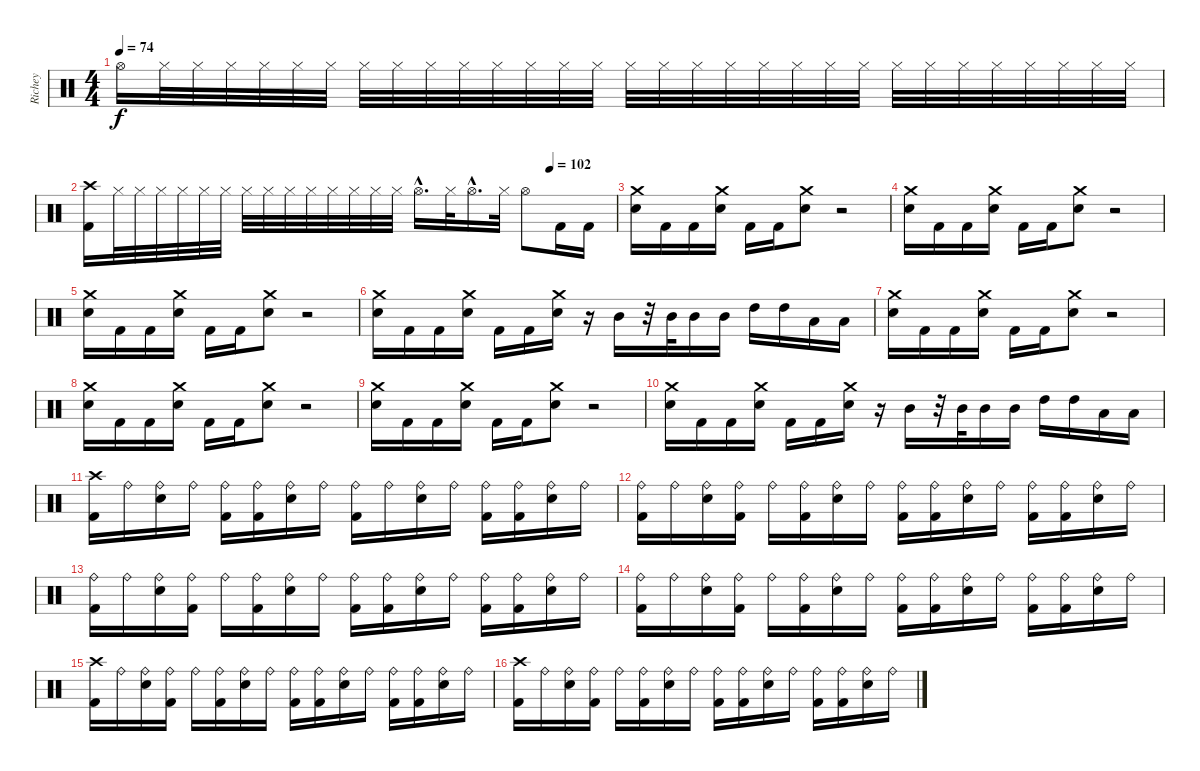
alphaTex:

\track ("Richey" "Richey") {instrument percussion}
\staff {score}
\articulation defaults
\ts (4 4)
\tempo 74
\clef neutral
\ks c "Hi-Hat (open)".16{dy f} "Hi-Hat (closed)".32 "Hi-Hat (closed)".32 "Hi-Hat (closed)".32 "Hi-Hat (closed)".32 "Hi-Hat (closed)".32 "Hi-Hat (closed)".32 "Hi-Hat (closed)".32 "Hi-Hat (closed)".32 "Hi-Hat (closed)".32 "Hi-Hat (closed)".32 "Hi-Hat (closed)".32 "Hi-Hat (closed)".32 "Hi-Hat (closed)".32 "Hi-Hat (closed)".32 "Hi-Hat (closed)".32 "Hi-Hat (closed)".32 "Hi-Hat (closed)".32 "Hi-Hat (closed)".32 "Hi-Hat (closed)".32 "Hi-Hat (closed)".32 "Hi-Hat (closed)".32 "Hi-Hat (closed)".32 "Hi-Hat (closed)".32 "Hi-Hat (closed)".32 "Hi-Hat (closed)".32 "Hi-Hat (closed)".32 "Hi-Hat (closed)".32 "Hi-Hat (closed)".32 "Hi-Hat (closed)".32 "Hi-Hat (closed)".32
|
\tempo (102 0.875)
("Crash high (hit)" "Kick (hit) 2").16 "Hi-Hat (closed)".32 "Hi-Hat (closed)".32 "Hi-Hat (closed)".32 "Hi-Hat (closed)".32 "Hi-Hat (closed)".32 "Hi-Hat (closed)".32 "Hi-Hat (closed)".32 "Hi-Hat (closed)".32 "Hi-Hat (closed)".32 "Hi-Hat (closed)".32 "Hi-Hat (closed)".32 "Hi-Hat (closed)".32 "Hi-Hat (closed)".32 "Hi-Hat (closed)".32 "Hi-Hat (open)"{hac}.16{d} "Hi-Hat (closed)".32 "Hi-Hat (open)"{hac}.16{d} "Hi-Hat (closed)".32 "Hi-Hat (open)".8 "Kick (hit) 2".16 "Kick (hit) 2".16 |
("Crash medium (hit)" "Snare (hit) 2").16 "Kick (hit) 2".16 "Kick (hit) 2".16 ("Crash medium (hit)" "Snare (hit) 2").16 "Kick (hit) 2".16 "Kick (hit) 2".16 ("Crash medium (hit)" "Snare (hit) 2").8 r.2 |
("Crash medium (hit)" "Snare (hit) 2").16 "Kick (hit) 2".16 "Kick (hit) 2".16 ("Crash medium (hit)" "Snare (hit) 2").16 "Kick (hit) 2".16 "Kick (hit) 2".16 ("Crash medium (hit)" "Snare (hit) 2").8 r.2 |
("Crash medium (hit)" "Snare (hit) 2").16 "Kick (hit) 2".16 "Kick (hit) 2".16 ("Crash medium (hit)" "Snare (hit) 2").16 "Kick (hit) 2".16 "Kick (hit) 2".16 ("Crash medium (hit)" "Snare (hit) 2").8 r.2 |
("Crash medium (hit)" "Snare (hit) 2").16 "Kick (hit) 2".16 "Kick (hit) 2".16 ("Crash medium (hit)" "Snare (hit) 2").16 "Kick (hit) 2".16 "Kick (hit) 2".16 ("Crash medium (hit)" "Snare (hit) 2").16 r.16 "Mid Tom (hit)".16 r.32 "Mid Tom (hit)".32 "Mid Tom (hit)".16 "Mid Tom (hit)".16 "High Tom (hit)".16 "High Tom (hit)".16 "Low Tom (hit)".16 "Low Tom (hit)".16 |
("Crash medium (hit)" "Snare (hit) 2").16 "Kick (hit) 2".16 "Kick (hit) 2".16 ("Crash medium (hit)" "Snare (hit) 2").16 "Kick (hit) 2".16 "Kick (hit) 2".16 ("Crash medium (hit)" "Snare (hit) 2").8 r.2 |
("Crash medium (hit)" "Snare (hit) 2").16 "Kick (hit) 2".16 "Kick (hit) 2".16 ("Crash medium (hit)" "Snare (hit) 2").16 "Kick (hit) 2".16 "Kick (hit) 2".16 ("Crash medium (hit)" "Snare (hit) 2").8 r.2 |
("Crash medium (hit)" "Snare (hit) 2").16 "Kick (hit) 2".16 "Kick (hit) 2".16 ("Crash medium (hit)" "Snare (hit) 2").16 "Kick (hit) 2".16 "Kick (hit) 2".16 ("Crash medium (hit)" "Snare (hit) 2").8 r.2 |
("Crash medium (hit)" "Snare (hit) 2").16 "Kick (hit) 2".16 "Kick (hit) 2".16 ("Crash medium (hit)" "Snare (hit) 2").16 "Kick (hit) 2".16 "Kick (hit) 2".16 ("Crash medium (hit)" "Snare (hit) 2").16 r.16 "Mid Tom (hit)".16 r.32 "Mid Tom (hit)".32 "Mid Tom (hit)".16 "Mid Tom (hit)".16 "High Tom (hit)".16 "High Tom (hit)".16 "Low Tom (hit)".16 "Low Tom (hit)".16 |
("Crash high (hit)" "Kick (hit) 2").16 "Ride (bell)".16 ("Ride (bell)" "Snare (hit) 2").16 "Ride (bell)".16 ("Ride (bell)" "Kick (hit) 2").16 ("Ride (bell)" "Kick (hit) 2").16 ("Ride (bell)" "Snare (hit) 2").16 "Ride (bell)".16 ("Ride (bell)" "Kick (hit) 2").16 "Ride (bell)".16 ("Ride (bell)" "Snare (hit) 2").16 "Ride (bell)".16 ("Ride (bell)" "Kick (hit) 2").16 ("Ride (bell)" "Kick (hit) 2").16 ("Ride (bell)" "Snare (hit) 2").16 "Ride (bell)".16 |
("Ride (bell)" "Kick (hit) 2").16 "Ride (bell)".16 ("Ride (bell)" "Snare (hit) 2").16 ("Ride (bell)" "Kick (hit) 2").16 "Ride (bell)".16 ("Ride (bell)" "Kick (hit) 2").16 ("Ride (bell)" "Snare (hit) 2").16 "Ride (bell)".16 ("Ride (bell)" "Kick (hit) 2").16 ("Ride (bell)" "Kick (hit) 2").16 ("Ride (bell)" "Snare (hit) 2").16 "Ride (bell)".16 ("Ride (bell)" "Kick (hit) 2").16 ("Ride (bell)" "Kick (hit) 2").16 ("Ride (bell)" "Snare (hit) 2").16 "Ride (bell)".16 |
("Ride (bell)" "Kick (hit) 2").16 "Ride (bell)".16 ("Ride (bell)" "Snare (hit) 2").16 ("Ride (bell)" "Kick (hit) 2").16 "Ride (bell)".16 ("Ride (bell)" "Kick (hit) 2").16 ("Ride (bell)" "Snare (hit) 2").16 "Ride (bell)".16 ("Ride (bell)" "Kick (hit) 2").16 ("Ride (bell)" "Kick (hit) 2").16 ("Ride (bell)" "Snare (hit) 2").16 "Ride (bell)".16 ("Ride (bell)" "Kick (hit) 2").16 ("Ride (bell)" "Kick (hit) 2").16 ("Ride (bell)" "Snare (hit) 2").16 "Ride (bell)".16 |
("Ride (bell)" "Kick (hit) 2").16 "Ride (bell)".16 ("Ride (bell)" "Snare (hit) 2").16 ("Ride (bell)" "Kick (hit) 2").16 "Ride (bell)".16 ("Ride (bell)" "Kick (hit) 2").16 ("Ride (bell)" "Snare (hit) 2").16 "Ride (bell)".16 ("Ride (bell)" "Kick (hit) 2").16 ("Ride (bell)" "Kick (hit) 2").16 ("Ride (bell)" "Snare (hit) 2").16 "Ride (bell)".16 ("Ride (bell)" "Kick (hit) 2").16 ("Ride (bell)" "Kick (hit) 2").16 ("Ride (bell)" "Snare (hit) 2").16 "Ride (bell)".16 |
("Crash high (hit)" "Kick (hit) 2").16 "Ride (bell)".16 ("Ride (bell)" "Snare (hit) 2").16 ("Ride (bell)" "Kick (hit) 2").16 "Ride (bell)".16 ("Ride (bell)" "Kick (hit) 2").16 ("Ride (bell)" "Snare (hit) 2").16 "Ride (bell)".16 ("Ride (bell)" "Kick (hit) 2").16 ("Ride (bell)" "Kick (hit) 2").16 ("Ride (bell)" "Snare (hit) 2").16 "Ride (bell)".16 ("Ride (bell)" "Kick (hit) 2").16 ("Ride (bell)" "Kick (hit) 2").16 ("Ride (bell)" "Snare (hit) 2").16 "Ride (bell)".16 |
("Crash high (hit)" "Kick (hit) 2").16 "Ride (bell)".16 ("Ride (bell)" "Snare (hit) 2").16 ("Ride (bell)" "Kick (hit) 2").16 "Ride (bell)".16 ("Ride (bell)" "Kick (hit) 2").16 ("Ride (bell)" "Snare (hit) 2").16 "Ride (bell)".16 ("Ride (bell)" "Kick (hit) 2").16 ("Ride (bell)" "Kick (hit) 2").16 ("Ride (bell)" "Snare (hit) 2").16 "Ride (bell)".16 ("Ride (bell)" "Kick (hit) 2").16 ("Ride (bell)" "Kick (hit) 2").16 ("Ride (bell)" "Snare (hit) 2").16 "Ride (bell)".16
